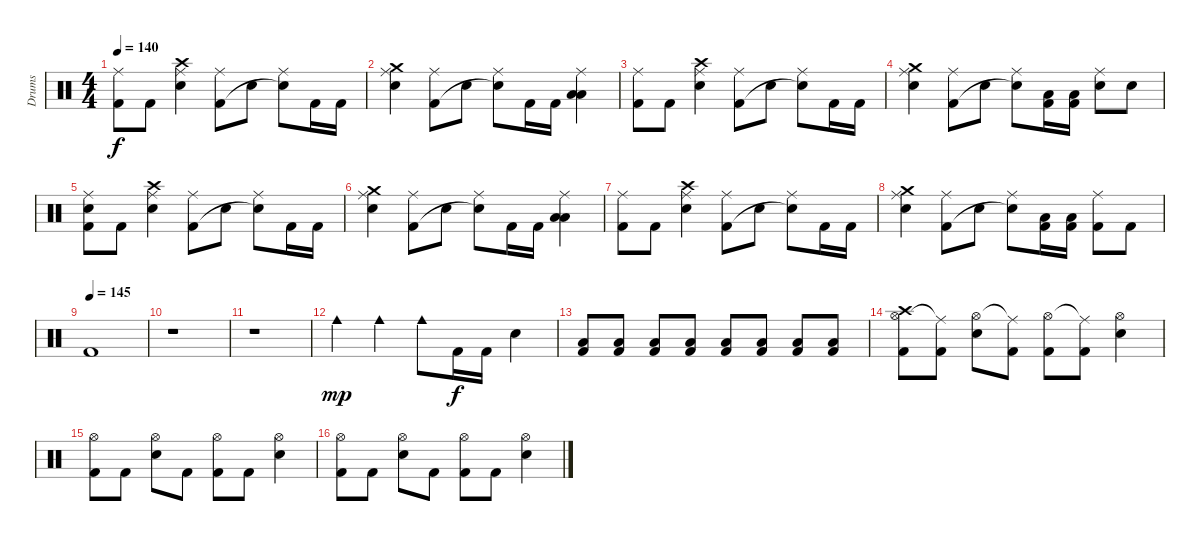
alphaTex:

\track ("Drums" "Drums") {instrument percussion}
\staff {score}
\articulation defaults
\ts (4 4)
\tempo 140
\clef neutral
\ks c
("Ride (middle)" "Kick (hit) 2").8{dy f} "Kick (hit) 2".8 ("Ride (middle)" "Electric Snare (hit)" "Crash high (hit)").4 ("Ride (middle)" "Kick (hit) 2").8 "Electric Snare (hit)".8 ("Ride (middle)" "Electric Snare (hit)"{t}).8 "Kick (hit) 2".16 "Kick (hit) 2".16 |
("Ride (middle)" "Electric Snare (hit)" "Crash medium (hit)").4 ("Ride (middle)" "Kick (hit) 2").8 "Electric Snare (hit)".8 ("Ride (middle)" "Electric Snare (hit)"{t}).8 "Kick (hit) 2".16 "Kick (hit) 2".16 ("Ride (middle)" "Low Tom (hit)" "Low Tom (hit)").4 |
("Ride (middle)" "Kick (hit) 2").8 "Kick (hit) 2".8 ("Ride (middle)" "Electric Snare (hit)" "Crash high (hit)").4 ("Ride (middle)" "Kick (hit) 2").8 "Electric Snare (hit)".8 ("Ride (middle)" "Electric Snare (hit)"{t}).8 "Kick (hit) 2".16 "Kick (hit) 2".16 |
("Ride (middle)" "Electric Snare (hit)" "Crash medium (hit)").4 ("Ride (middle)" "Kick (hit) 2").8 "Electric Snare (hit)".8 ("Ride (middle)" "Electric Snare (hit)"{t}).8 ("Low Floor Tom (hit)" "Kick (hit) 2").16 ("Low Floor Tom (hit)" "Kick (hit) 2").16 ("Ride (middle)" "Electric Snare (hit)").8 "Electric Snare (hit)".8 |
("Ride (middle)" "Kick (hit) 2" "Electric Snare (hit)").8 "Kick (hit) 2".8 ("Ride (middle)" "Electric Snare (hit)" "Crash high (hit)").4 ("Ride (middle)" "Kick (hit) 2").8 "Electric Snare (hit)".8 ("Ride (middle)" "Electric Snare (hit)"{t}).8 "Kick (hit) 2".16 "Kick (hit) 2".16 |
("Ride (middle)" "Electric Snare (hit)" "Crash medium (hit)").4 ("Ride (middle)" "Kick (hit) 2").8 "Electric Snare (hit)".8 ("Ride (middle)" "Electric Snare (hit)"{t}).8 "Kick (hit) 2".16 "Kick (hit) 2".16 ("Ride (middle)" "Low Tom (hit)" "Low Tom (hit)").4 |
("Ride (middle)" "Kick (hit) 2").8 "Kick (hit) 2".8 ("Ride (middle)" "Electric Snare (hit)" "Crash high (hit)").4 ("Ride (middle)" "Kick (hit) 2").8 "Electric Snare (hit)".8 ("Ride (middle)" "Electric Snare (hit)"{t}).8 "Kick (hit) 2".16 "Kick (hit) 2".16 |
("Ride (middle)" "Electric Snare (hit)" "Crash medium (hit)").4 ("Ride (middle)" "Kick (hit) 2").8 "Electric Snare (hit)".8 ("Ride (middle)" "Electric Snare (hit)"{t}).8 ("Low Floor Tom (hit)" "Kick (hit) 2").16 ("Low Floor Tom (hit)" "Kick (hit) 2").16 ("Ride (middle)" "Kick (hit) 2").8 "Kick (hit) 2".8 |
\tempo (145)
"Kick (hit) 2".1 |
r.1 |
r.1 |
"Cowbell medium (hit)".4{dy mp} "Cowbell medium (hit)".4 "Cowbell medium (hit)".8 "Kick (hit) 2".16{dy f} "Kick (hit) 2".16 "Electric Snare (hit)".4 |
("Kick (hit) 2" "Low Floor Tom (hit)").8 ("Kick (hit) 2" "Low Floor Tom (hit)").8 ("Kick (hit) 2" "Low Floor Tom (hit)").8 ("Kick (hit) 2" "Low Floor Tom (hit)").8 ("Kick (hit) 2" "Low Floor Tom (hit)").8 ("Kick (hit) 2" "Low Floor Tom (hit)").8 ("Kick (hit) 2" "Low Floor Tom (hit)").8 ("Kick (hit) 2" "Low Floor Tom (hit)").8 |
("Kick (hit) 2" "Hi-Hat (open)" "Crash high (hit)").8 ("Kick (hit) 2" "Ride (middle)"{t}).8 ("Electric Snare (hit)" "Hi-Hat (open)").8 ("Kick (hit) 2" "Ride (middle)"{t}).8 ("Kick (hit) 2" "Hi-Hat (open)").8 ("Kick (hit) 2" "Ride (middle)"{t}).8 ("Electric Snare (hit)" "Hi-Hat (open)").4 |
("Kick (hit) 2" "Hi-Hat (open)").8 "Kick (hit) 2".8 ("Electric Snare (hit)" "Hi-Hat (open)").8 "Kick (hit) 2".8 ("Kick (hit) 2" "Hi-Hat (open)").8 "Kick (hit) 2".8 ("Electric Snare (hit)" "Hi-Hat (open)").4 |
("Kick (hit) 2" "Hi-Hat (open)").8 "Kick (hit) 2".8 ("Electric Snare (hit)" "Hi-Hat (open)").8 "Kick (hit) 2".8 ("Kick (hit) 2" "Hi-Hat (open)").8 "Kick (hit) 2".8 ("Electric Snare (hit)" "Hi-Hat (open)").4
